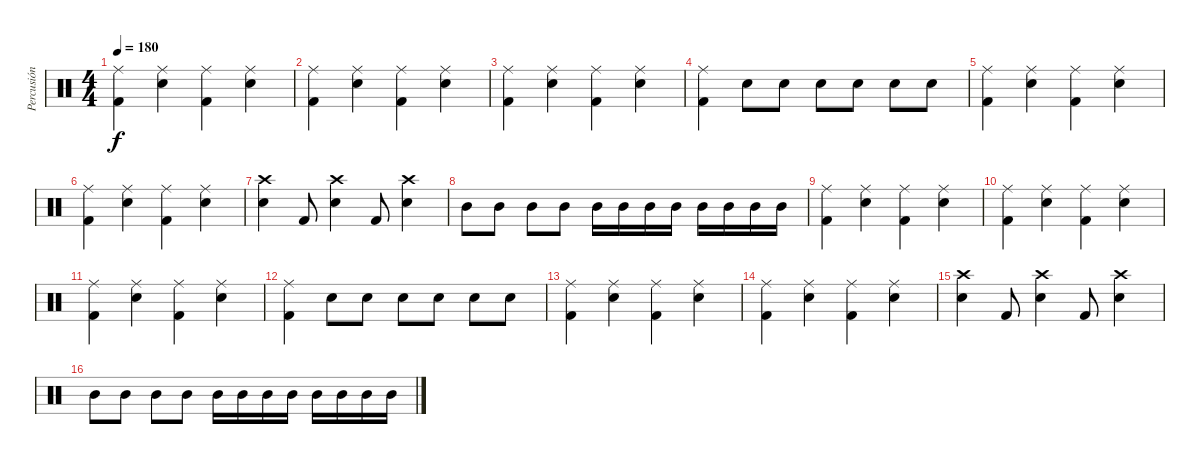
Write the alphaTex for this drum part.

\track ("Percusión" "Percusión") {instrument percussion}
\staff {score}
\articulation defaults
\ts (4 4)
\tempo 180
\clef neutral
\ks c
("Kick (hit) 2" "Ride (middle)").4{dy f} ("Snare (hit) 2" "Ride (middle)").4 ("Kick (hit) 2" "Ride (middle)").4 ("Snare (hit) 2" "Ride (middle)").4 |
("Kick (hit) 2" "Ride (middle)").4 ("Snare (hit) 2" "Ride (middle)").4 ("Kick (hit) 2" "Ride (middle)").4 ("Snare (hit) 2" "Ride (middle)").4 |
("Kick (hit) 2" "Ride (middle)").4 ("Snare (hit) 2" "Ride (middle)").4 ("Kick (hit) 2" "Ride (middle)").4 ("Snare (hit) 2" "Ride (middle)").4 |
("Kick (hit) 2" "Ride (middle)").4 "Snare (hit) 2".8 "Snare (hit) 2".8 "Snare (hit) 2".8 "Snare (hit) 2".8 "Snare (hit) 2".8 "Snare (hit) 2".8 |
("Kick (hit) 2" "Ride (middle)").4 ("Snare (hit) 2" "Ride (middle)").4 ("Kick (hit) 2" "Ride (middle)").4 ("Snare (hit) 2" "Ride (middle)").4 |
("Kick (hit) 2" "Ride (middle)").4 ("Snare (hit) 2" "Ride (middle)").4 ("Kick (hit) 2" "Ride (middle)").4 ("Snare (hit) 2" "Ride (middle)").4 |
("Crash high (hit)" "Snare (hit) 2").4 "Kick (hit) 2".8 ("Crash high (hit)" "Snare (hit) 2").4 "Kick (hit) 2".8 ("Crash high (hit)" "Snare (hit) 2").4 |
"Mid Tom (hit)".8 "Mid Tom (hit)".8 "Mid Tom (hit)".8 "Mid Tom (hit)".8 "Mid Tom (hit)".16 "Mid Tom (hit)".16 "Mid Tom (hit)".16 "Mid Tom (hit)".16 "Mid Tom (hit)".16 "Mid Tom (hit)".16 "Mid Tom (hit)".16 "Mid Tom (hit)".16 |
("Kick (hit) 2" "Ride (middle)").4 ("Snare (hit) 2" "Ride (middle)").4 ("Kick (hit) 2" "Ride (middle)").4 ("Snare (hit) 2" "Ride (middle)").4 |
("Kick (hit) 2" "Ride (middle)").4 ("Snare (hit) 2" "Ride (middle)").4 ("Kick (hit) 2" "Ride (middle)").4 ("Snare (hit) 2" "Ride (middle)").4 |
("Kick (hit) 2" "Ride (middle)").4 ("Snare (hit) 2" "Ride (middle)").4 ("Kick (hit) 2" "Ride (middle)").4 ("Snare (hit) 2" "Ride (middle)").4 |
("Kick (hit) 2" "Ride (middle)").4 "Snare (hit) 2".8 "Snare (hit) 2".8 "Snare (hit) 2".8 "Snare (hit) 2".8 "Snare (hit) 2".8 "Snare (hit) 2".8 |
("Kick (hit) 2" "Ride (middle)").4 ("Snare (hit) 2" "Ride (middle)").4 ("Kick (hit) 2" "Ride (middle)").4 ("Snare (hit) 2" "Ride (middle)").4 |
("Kick (hit) 2" "Ride (middle)").4 ("Snare (hit) 2" "Ride (middle)").4 ("Kick (hit) 2" "Ride (middle)").4 ("Snare (hit) 2" "Ride (middle)").4 |
("Crash high (hit)" "Snare (hit) 2").4 "Kick (hit) 2".8 ("Crash high (hit)" "Snare (hit) 2").4 "Kick (hit) 2".8 ("Crash high (hit)" "Snare (hit) 2").4 |
"Mid Tom (hit)".8 "Mid Tom (hit)".8 "Mid Tom (hit)".8 "Mid Tom (hit)".8 "Mid Tom (hit)".16 "Mid Tom (hit)".16 "Mid Tom (hit)".16 "Mid Tom (hit)".16 "Mid Tom (hit)".16 "Mid Tom (hit)".16 "Mid Tom (hit)".16 "Mid Tom (hit)".16
